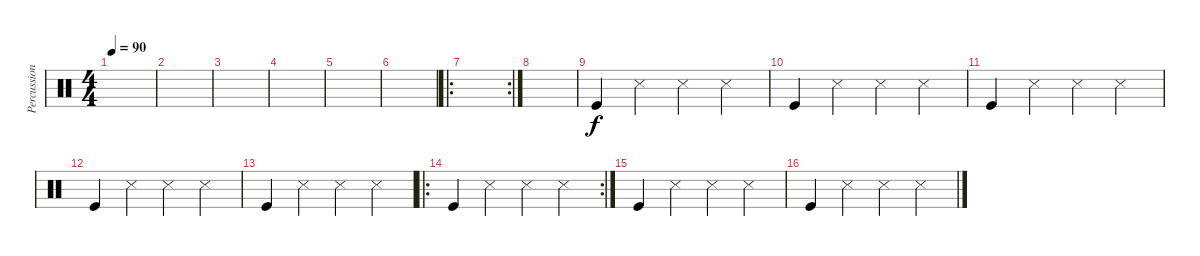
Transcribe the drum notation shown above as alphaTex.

\track ("Percussions" "Percussion") {instrument percussion}
\staff {score}
\articulation defaults
\ts (4 4)
\tempo 90
\clef neutral
\ks c
|
|
|
|
|
|
\ro
\rc 2
|
|
"Kick (hit)".4 "Snare (side stick) 3".4 "Snare (side stick) 3".4 "Metronome (hit)".4 |
"Kick (hit)".4 "Snare (side stick) 3".4 "Snare (side stick) 3".4 "Metronome (hit)".4 |
"Kick (hit)".4 "Snare (side stick) 3".4 "Snare (side stick) 3".4 "Metronome (hit)".4 |
"Kick (hit)".4 "Snare (side stick) 3".4 "Snare (side stick) 3".4 "Metronome (hit)".4 |
"Kick (hit)".4 "Snare (side stick) 3".4 "Snare (side stick) 3".4 "Metronome (hit)".4 |
\ro
\rc 2 "Kick (hit)".4 "Snare (side stick) 3".4 "Snare (side stick) 3".4 "Metronome (hit)".4
|
"Kick (hit)".4 "Snare (side stick) 3".4 "Snare (side stick) 3".4 "Metronome (hit)".4 |
"Kick (hit)".4 "Snare (side stick) 3".4 "Snare (side stick) 3".4 "Metronome (hit)".4
